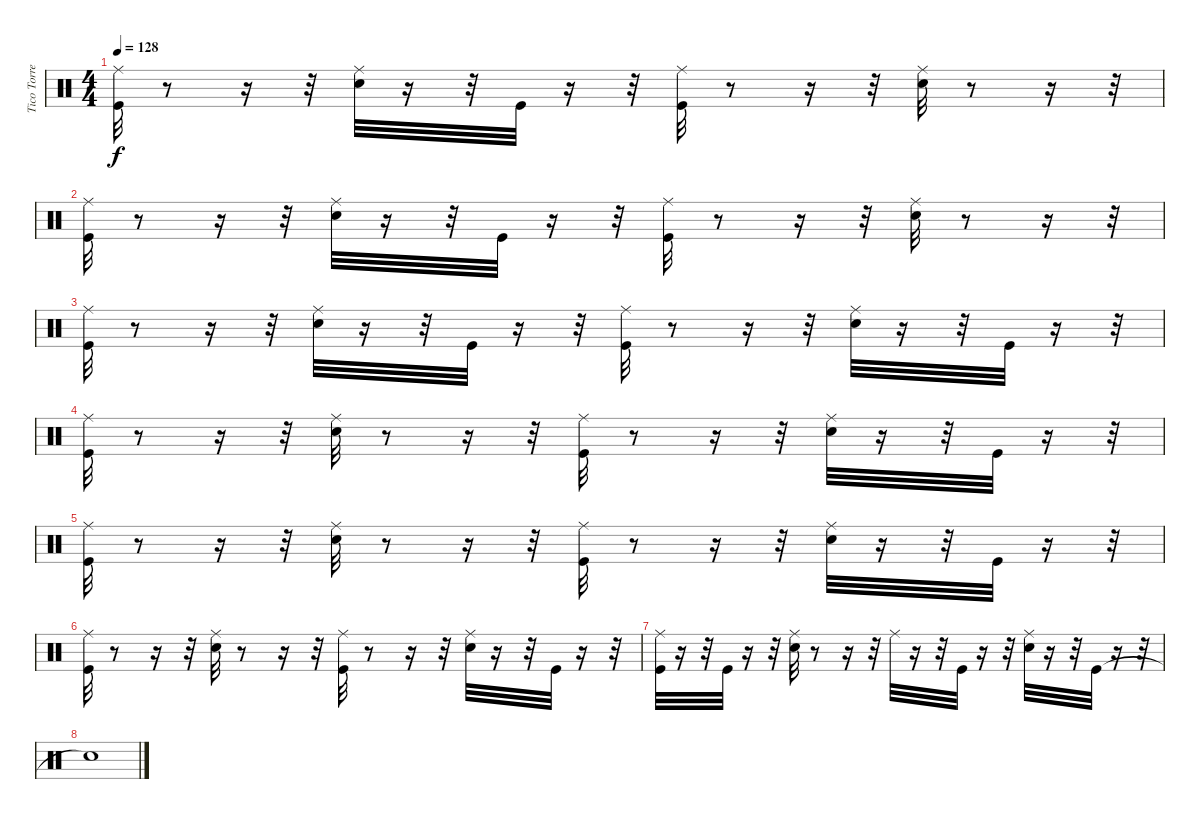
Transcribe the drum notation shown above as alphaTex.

\track ("Tico Torres" "Tico Torre") {instrument percussion}
\staff {score}
\articulation defaults
\ts (4 4)
\tempo 128
\clef neutral
\ks c
("Ride (middle)" "Kick (hit)").32{dy f} r.8 r.16 r.32 ("Ride (middle)" "Snare (hit) 2").32 r.16 r.32 "Kick (hit)".32 r.16 r.32 ("Ride (middle)" "Kick (hit)").32 r.8 r.16 r.32 ("Ride (middle)" "Snare (hit) 2").32 r.8 r.16 r.32 |
("Ride (middle)" "Kick (hit)").32 r.8 r.16 r.32 ("Ride (middle)" "Snare (hit) 2").32 r.16 r.32 "Kick (hit)".32 r.16 r.32 ("Ride (middle)" "Kick (hit)").32 r.8 r.16 r.32 ("Ride (middle)" "Snare (hit) 2").32 r.8 r.16 r.32 |
("Ride (middle)" "Kick (hit)").32 r.8 r.16 r.32 ("Ride (middle)" "Snare (hit) 2").32 r.16 r.32 "Kick (hit)".32 r.16 r.32 ("Ride (middle)" "Kick (hit)").32 r.8 r.16 r.32 ("Ride (middle)" "Snare (hit) 2").32 r.16 r.32 "Kick (hit)".32 r.16 r.32 |
("Ride (middle)" "Kick (hit)").32 r.8 r.16 r.32 ("Ride (middle)" "Snare (hit) 2").32 r.8 r.16 r.32 ("Ride (middle)" "Kick (hit)").32 r.8 r.16 r.32 ("Ride (middle)" "Snare (hit) 2").32 r.16 r.32 "Kick (hit)".32 r.16 r.32 |
("Ride (middle)" "Kick (hit)").32 r.8 r.16 r.32 ("Ride (middle)" "Snare (hit) 2").32 r.8 r.16 r.32 ("Ride (middle)" "Kick (hit)").32 r.8 r.16 r.32 ("Ride (middle)" "Snare (hit) 2").32 r.16 r.32 "Kick (hit)".32 r.16 r.32 |
("Ride (middle)" "Kick (hit)").32 r.8 r.16 r.32 ("Ride (middle)" "Snare (hit) 2").32 r.8 r.16 r.32 ("Ride (middle)" "Kick (hit)").32 r.8 r.16 r.32 ("Ride (middle)" "Snare (hit) 2").32 r.16 r.32 "Kick (hit)".32 r.16 r.32 |
("Ride (middle)" "Kick (hit)").32{volume 10} r.16 r.32 "Kick (hit)".32 r.16 r.32 ("Ride (middle)" "Snare (hit) 2").32 r.8 r.16 r.32 "Ride (middle)".32 r.16 r.32 "Kick (hit)".32 r.16 r.32 ("Ride (middle)" "Snare (hit) 2").32 r.16 r.32 "Kick (hit)".32 r.16 r.32 |
"Snare (hit)"{t}.1{volume 0}
